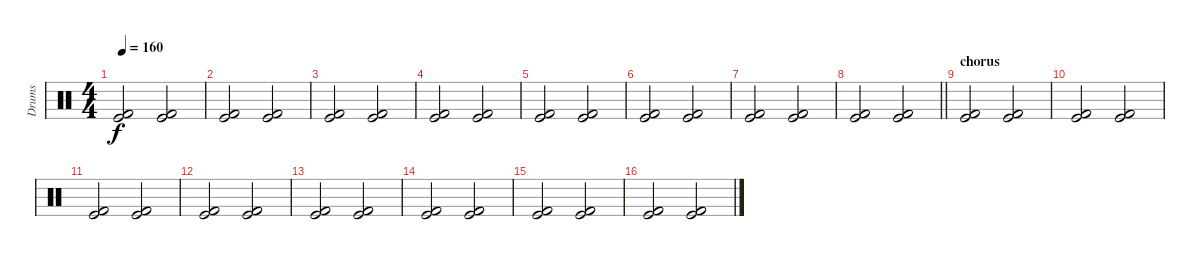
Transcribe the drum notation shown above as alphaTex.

\track ("Drums" "Drums") {instrument percussion}
\staff {score}
\articulation defaults
\ts (4 4)
\tempo 160
\clef neutral
\ks c
("Kick (hit)" "Kick (hit) 2").2{dy f} ("Kick (hit)" "Kick (hit) 2").2 |
("Kick (hit)" "Kick (hit) 2").2 ("Kick (hit)" "Kick (hit) 2").2 |
("Kick (hit)" "Kick (hit) 2").2 ("Kick (hit)" "Kick (hit) 2").2 |
("Kick (hit)" "Kick (hit) 2").2 ("Kick (hit)" "Kick (hit) 2").2 |
("Kick (hit)" "Kick (hit) 2").2 ("Kick (hit)" "Kick (hit) 2").2 |
("Kick (hit)" "Kick (hit) 2").2 ("Kick (hit)" "Kick (hit) 2").2 |
("Kick (hit)" "Kick (hit) 2").2 ("Kick (hit)" "Kick (hit) 2").2 |
\barLineRight lightlight
("Kick (hit)" "Kick (hit) 2").2 ("Kick (hit)" "Kick (hit) 2").2 |
\section ("" "chorus")
("Kick (hit)" "Kick (hit) 2").2 ("Kick (hit)" "Kick (hit) 2").2 |
("Kick (hit)" "Kick (hit) 2").2 ("Kick (hit)" "Kick (hit) 2").2 |
("Kick (hit)" "Kick (hit) 2").2 ("Kick (hit)" "Kick (hit) 2").2 |
("Kick (hit)" "Kick (hit) 2").2 ("Kick (hit)" "Kick (hit) 2").2 |
("Kick (hit)" "Kick (hit) 2").2 ("Kick (hit)" "Kick (hit) 2").2 |
("Kick (hit)" "Kick (hit) 2").2 ("Kick (hit)" "Kick (hit) 2").2 |
("Kick (hit)" "Kick (hit) 2").2 ("Kick (hit)" "Kick (hit) 2").2 |
("Kick (hit)" "Kick (hit) 2").2 ("Kick (hit)" "Kick (hit) 2").2
